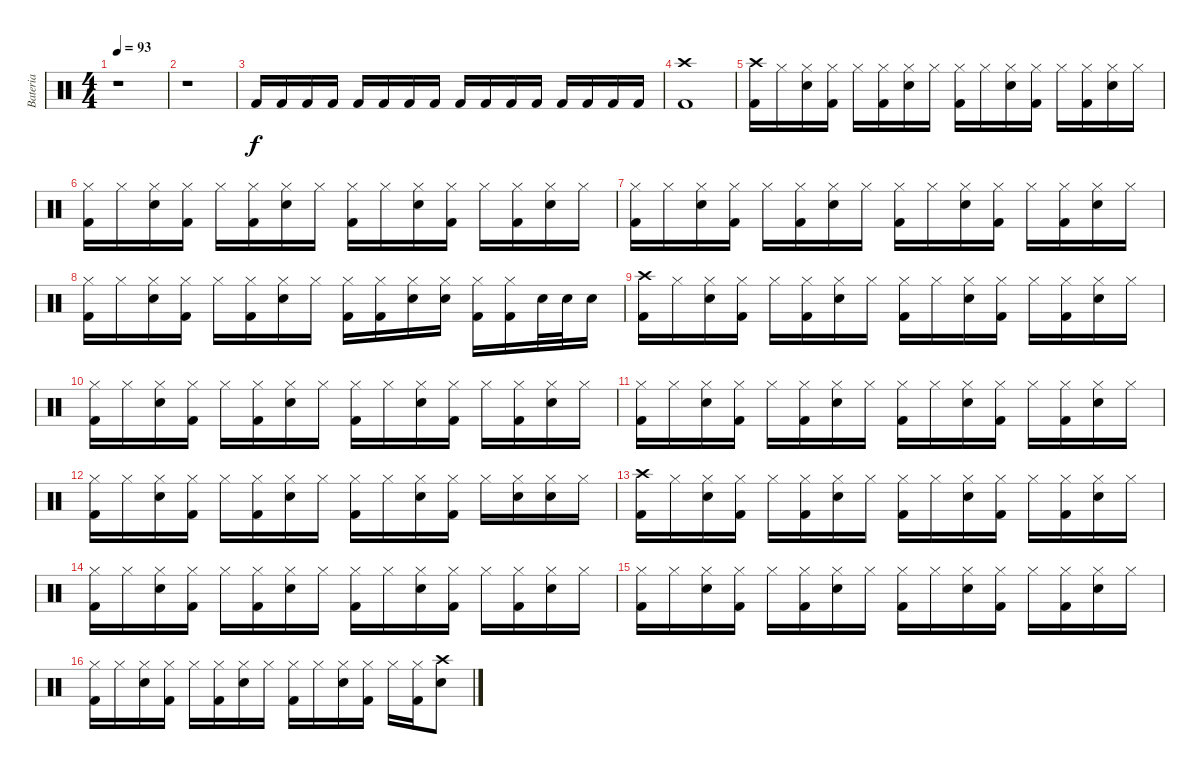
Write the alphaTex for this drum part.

\track ("Bateria" "Bateria") {instrument percussion}
\staff {score}
\articulation defaults
\ts (4 4)
\tempo 93
\clef neutral
\ks c
r.1{dy f} |
r.1 |
"Kick (hit) 2".16{volume 8} "Kick (hit) 2".16{volume 8} "Kick (hit) 2".16{volume 9} "Kick (hit) 2".16{volume 9} "Kick (hit) 2".16{volume 10} "Kick (hit) 2".16{volume 10} "Kick (hit) 2".16{volume 11} "Kick (hit) 2".16{volume 11} "Kick (hit) 2".16{volume 12} "Kick (hit) 2".16{volume 12} "Kick (hit) 2".16{volume 13} "Kick (hit) 2".16{volume 13} "Kick (hit) 2".16 "Kick (hit) 2".16 "Kick (hit) 2".16 "Kick (hit) 2".16 |
("Kick (hit) 2" "Crash high (hit)").1 |
("Crash high (hit)" "Kick (hit) 2").16 "Hi-Hat (closed)".16 ("Hi-Hat (closed)" "Snare (hit) 2").16 ("Hi-Hat (closed)" "Kick (hit) 2").16 "Hi-Hat (closed)".16 ("Hi-Hat (closed)" "Kick (hit) 2").16 ("Hi-Hat (closed)" "Snare (hit) 2").16 "Hi-Hat (closed)".16 ("Hi-Hat (closed)" "Kick (hit) 2").16 "Hi-Hat (closed)".16 ("Hi-Hat (closed)" "Snare (hit) 2").16 ("Hi-Hat (closed)" "Kick (hit) 2").16 "Hi-Hat (closed)".16 ("Hi-Hat (closed)" "Kick (hit) 2").16 ("Hi-Hat (closed)" "Snare (hit) 2").16 "Hi-Hat (closed)".16 |
("Hi-Hat (closed)" "Kick (hit) 2").16 "Hi-Hat (closed)".16 ("Hi-Hat (closed)" "Snare (hit) 2").16 ("Hi-Hat (closed)" "Kick (hit) 2").16 "Hi-Hat (closed)".16 ("Hi-Hat (closed)" "Kick (hit) 2").16 ("Hi-Hat (closed)" "Snare (hit) 2").16 "Hi-Hat (closed)".16 ("Hi-Hat (closed)" "Kick (hit) 2").16 "Hi-Hat (closed)".16 ("Hi-Hat (closed)" "Snare (hit) 2").16 ("Hi-Hat (closed)" "Kick (hit) 2").16 "Hi-Hat (closed)".16 ("Hi-Hat (closed)" "Kick (hit) 2").16 ("Hi-Hat (closed)" "Snare (hit) 2").16 "Hi-Hat (closed)".16 |
("Hi-Hat (closed)" "Kick (hit) 2").16 "Hi-Hat (closed)".16 ("Hi-Hat (closed)" "Snare (hit) 2").16 ("Hi-Hat (closed)" "Kick (hit) 2").16 "Hi-Hat (closed)".16 ("Hi-Hat (closed)" "Kick (hit) 2").16 ("Hi-Hat (closed)" "Snare (hit) 2").16 "Hi-Hat (closed)".16 ("Hi-Hat (closed)" "Kick (hit) 2").16 "Hi-Hat (closed)".16 ("Hi-Hat (closed)" "Snare (hit) 2").16 ("Hi-Hat (closed)" "Kick (hit) 2").16 "Hi-Hat (closed)".16 ("Hi-Hat (closed)" "Kick (hit) 2").16 ("Hi-Hat (closed)" "Snare (hit) 2").16 "Hi-Hat (closed)".16 |
("Hi-Hat (closed)" "Kick (hit) 2").16 "Hi-Hat (closed)".16 ("Hi-Hat (closed)" "Snare (hit) 2").16 ("Hi-Hat (closed)" "Kick (hit) 2").16 "Hi-Hat (closed)".16 ("Hi-Hat (closed)" "Kick (hit) 2").16 ("Hi-Hat (closed)" "Snare (hit) 2").16 "Hi-Hat (closed)".16 ("Hi-Hat (closed)" "Kick (hit) 2").16 ("Hi-Hat (closed)" "Kick (hit) 2").16 ("Hi-Hat (closed)" "Snare (hit) 2").16 ("Hi-Hat (closed)" "Snare (hit) 2").16 ("Hi-Hat (closed)" "Kick (hit) 2").16 ("Hi-Hat (closed)" "Kick (hit) 2").16 "Snare (hit) 2".32 "Snare (hit) 2".32 "Snare (hit) 2".16 |
("Crash high (hit)" "Kick (hit) 2").16 "Hi-Hat (closed)".16 ("Hi-Hat (closed)" "Snare (hit) 2").16 ("Hi-Hat (closed)" "Kick (hit) 2").16 "Hi-Hat (closed)".16 ("Hi-Hat (closed)" "Kick (hit) 2").16 ("Hi-Hat (closed)" "Snare (hit) 2").16 "Hi-Hat (closed)".16 ("Hi-Hat (closed)" "Kick (hit) 2").16 "Hi-Hat (closed)".16 ("Hi-Hat (closed)" "Snare (hit) 2").16 ("Hi-Hat (closed)" "Kick (hit) 2").16 "Hi-Hat (closed)".16 ("Hi-Hat (closed)" "Kick (hit) 2").16 ("Hi-Hat (closed)" "Snare (hit) 2").16 "Hi-Hat (closed)".16 |
("Hi-Hat (closed)" "Kick (hit) 2").16 "Hi-Hat (closed)".16 ("Hi-Hat (closed)" "Snare (hit) 2").16 ("Hi-Hat (closed)" "Kick (hit) 2").16 "Hi-Hat (closed)".16 ("Hi-Hat (closed)" "Kick (hit) 2").16 ("Hi-Hat (closed)" "Snare (hit) 2").16 "Hi-Hat (closed)".16 ("Hi-Hat (closed)" "Kick (hit) 2").16 "Hi-Hat (closed)".16 ("Hi-Hat (closed)" "Snare (hit) 2").16 ("Hi-Hat (closed)" "Kick (hit) 2").16 "Hi-Hat (closed)".16 ("Hi-Hat (closed)" "Kick (hit) 2").16 ("Hi-Hat (closed)" "Snare (hit) 2").16 "Hi-Hat (closed)".16 |
("Hi-Hat (closed)" "Kick (hit) 2").16 "Hi-Hat (closed)".16 ("Hi-Hat (closed)" "Snare (hit) 2").16 ("Hi-Hat (closed)" "Kick (hit) 2").16 "Hi-Hat (closed)".16 ("Hi-Hat (closed)" "Kick (hit) 2").16 ("Hi-Hat (closed)" "Snare (hit) 2").16 "Hi-Hat (closed)".16 ("Hi-Hat (closed)" "Kick (hit) 2").16 "Hi-Hat (closed)".16 ("Hi-Hat (closed)" "Snare (hit) 2").16 ("Hi-Hat (closed)" "Kick (hit) 2").16 "Hi-Hat (closed)".16 ("Hi-Hat (closed)" "Kick (hit) 2").16 ("Hi-Hat (closed)" "Snare (hit) 2").16 "Hi-Hat (closed)".16 |
("Hi-Hat (closed)" "Kick (hit) 2").16 "Hi-Hat (closed)".16 ("Hi-Hat (closed)" "Snare (hit) 2").16 ("Hi-Hat (closed)" "Kick (hit) 2").16 "Hi-Hat (closed)".16 ("Hi-Hat (closed)" "Kick (hit) 2").16 ("Hi-Hat (closed)" "Snare (hit) 2").16 "Hi-Hat (closed)".16 ("Hi-Hat (closed)" "Kick (hit) 2").16 "Hi-Hat (closed)".16 ("Hi-Hat (closed)" "Snare (hit) 2").16 ("Hi-Hat (closed)" "Kick (hit) 2").16 "Hi-Hat (closed)".16 ("Hi-Hat (closed)" "Snare (hit) 2").16 ("Hi-Hat (closed)" "Snare (hit) 2").16 "Hi-Hat (closed)".16 |
("Crash high (hit)" "Kick (hit) 2").16 "Hi-Hat (closed)".16 ("Hi-Hat (closed)" "Snare (hit) 2").16 ("Hi-Hat (closed)" "Kick (hit) 2").16 "Hi-Hat (closed)".16 ("Hi-Hat (closed)" "Kick (hit) 2").16 ("Hi-Hat (closed)" "Snare (hit) 2").16 "Hi-Hat (closed)".16 ("Hi-Hat (closed)" "Kick (hit) 2").16 "Hi-Hat (closed)".16 ("Hi-Hat (closed)" "Snare (hit) 2").16 ("Hi-Hat (closed)" "Kick (hit) 2").16 "Hi-Hat (closed)".16 ("Hi-Hat (closed)" "Kick (hit) 2").16 ("Hi-Hat (closed)" "Snare (hit) 2").16 "Hi-Hat (closed)".16 |
("Hi-Hat (closed)" "Kick (hit) 2").16 "Hi-Hat (closed)".16 ("Hi-Hat (closed)" "Snare (hit) 2").16 ("Hi-Hat (closed)" "Kick (hit) 2").16 "Hi-Hat (closed)".16 ("Hi-Hat (closed)" "Kick (hit) 2").16 ("Hi-Hat (closed)" "Snare (hit) 2").16 "Hi-Hat (closed)".16 ("Hi-Hat (closed)" "Kick (hit) 2").16 "Hi-Hat (closed)".16 ("Hi-Hat (closed)" "Snare (hit) 2").16 ("Hi-Hat (closed)" "Kick (hit) 2").16 "Hi-Hat (closed)".16 ("Hi-Hat (closed)" "Kick (hit) 2").16 ("Hi-Hat (closed)" "Snare (hit) 2").16 "Hi-Hat (closed)".16 |
("Hi-Hat (closed)" "Kick (hit) 2").16 "Hi-Hat (closed)".16 ("Hi-Hat (closed)" "Snare (hit) 2").16 ("Hi-Hat (closed)" "Kick (hit) 2").16 "Hi-Hat (closed)".16 ("Hi-Hat (closed)" "Kick (hit) 2").16 ("Hi-Hat (closed)" "Snare (hit) 2").16 "Hi-Hat (closed)".16 ("Hi-Hat (closed)" "Kick (hit) 2").16 "Hi-Hat (closed)".16 ("Hi-Hat (closed)" "Snare (hit) 2").16 ("Hi-Hat (closed)" "Kick (hit) 2").16 "Hi-Hat (closed)".16 ("Hi-Hat (closed)" "Kick (hit) 2").16 ("Hi-Hat (closed)" "Snare (hit) 2").16 "Hi-Hat (closed)".16 |
("Hi-Hat (closed)" "Kick (hit) 2").16 "Hi-Hat (closed)".16 ("Hi-Hat (closed)" "Snare (hit) 2").16 ("Hi-Hat (closed)" "Kick (hit) 2").16 "Hi-Hat (closed)".16 ("Hi-Hat (closed)" "Kick (hit) 2").16 ("Hi-Hat (closed)" "Snare (hit) 2").16 "Hi-Hat (closed)".16 ("Hi-Hat (closed)" "Kick (hit) 2").16 "Hi-Hat (closed)".16 ("Hi-Hat (closed)" "Snare (hit) 2").16 ("Hi-Hat (closed)" "Kick (hit) 2").16 "Hi-Hat (closed)".16 ("Hi-Hat (closed)" "Kick (hit) 2").16 ("Crash high (hit)" "Snare (hit) 2").8
